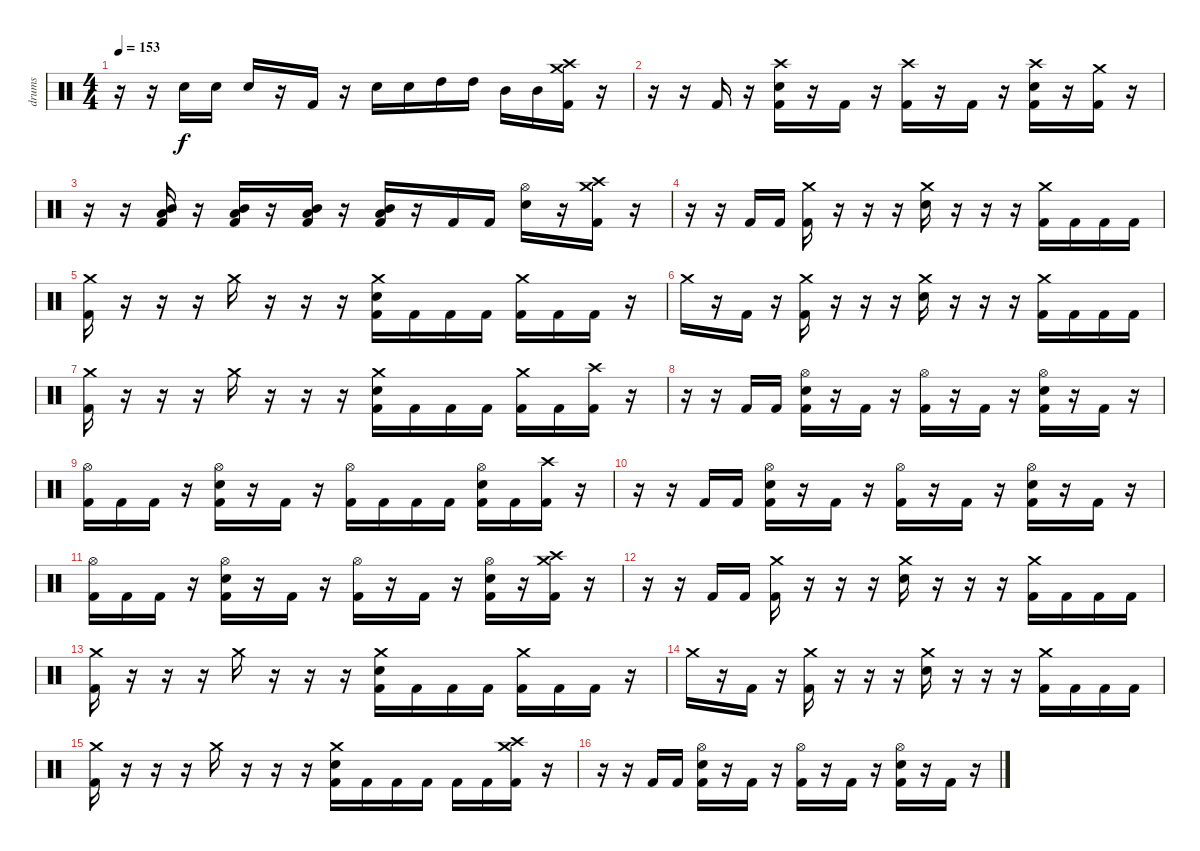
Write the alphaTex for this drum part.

\track ("drums" "drums") {instrument percussion}
\staff {score}
\articulation defaults
\ts (4 4)
\tempo 153
\clef neutral
\ks c
r.16{dy f} r.16 "Electric Snare (hit)".16 "Electric Snare (hit)".16 "Electric Snare (hit)".16 r.16 "Kick (hit) 2".16 r.16 "Electric Snare (hit)".16 "Electric Snare (hit)".16 "High Tom (hit)".16 "High Tom (hit)".16 "Mid Tom (hit)".16 "Mid Tom (hit)".16 ("Crash high (hit)" "Crash medium (hit)" "Kick (hit) 2").16 r.16 |
r.16 r.16 "Kick (hit) 2".16 r.16 ("Crash high (hit)" "Electric Snare (hit)" "Kick (hit) 2").16 r.16 "Kick (hit) 2".16 r.16 ("Crash high (hit)" "Kick (hit) 2").16 r.16 "Kick (hit) 2".16 r.16 ("Crash high (hit)" "Electric Snare (hit)" "Kick (hit) 2").16 r.16 ("Crash medium (hit)" "Kick (hit) 2").16 r.16 |
r.16 r.16 ("Mid Tom (hit)" "Low Floor Tom (hit)" "Kick (hit) 2").16 r.16 ("Mid Tom (hit)" "Low Floor Tom (hit)" "Kick (hit) 2").16 r.16 ("Mid Tom (hit)" "Low Floor Tom (hit)" "Kick (hit) 2").16 r.16 ("Mid Tom (hit)" "Low Floor Tom (hit)" "Kick (hit) 2").16 r.16 "Kick (hit) 2".16 "Kick (hit) 2".16 ("Hi-Hat (open)" "Electric Snare (hit)").16 r.16 ("Crash medium (hit)" "Crash high (hit)" "Kick (hit) 2").16 r.16 |
r.16 r.16 "Kick (hit) 2".16 "Kick (hit) 2".16 ("Crash medium (hit)" "Kick (hit) 2").16 r.16 r.16 r.16 ("Crash medium (hit)" "Electric Snare (hit)").16 r.16 r.16 r.16 ("Crash medium (hit)" "Kick (hit) 2").16 "Kick (hit) 2".16 "Kick (hit) 2".16 "Kick (hit) 2".16 |
("Crash medium (hit)" "Kick (hit) 2").16 r.16 r.16 r.16 "Crash medium (hit)".16 r.16 r.16 r.16 ("Crash medium (hit)" "Electric Snare (hit)" "Kick (hit) 2").16 "Kick (hit) 2".16 "Kick (hit) 2".16 "Kick (hit) 2".16 ("Crash medium (hit)" "Kick (hit) 2").16 "Kick (hit) 2".16 "Kick (hit) 2".16 r.16 |
"Crash medium (hit)".16 r.16 "Kick (hit) 2".16 r.16 ("Crash medium (hit)" "Kick (hit) 2").16 r.16 r.16 r.16 ("Crash medium (hit)" "Electric Snare (hit)").16 r.16 r.16 r.16 ("Crash medium (hit)" "Kick (hit) 2").16 "Kick (hit) 2".16 "Kick (hit) 2".16 "Kick (hit) 2".16 |
("Crash medium (hit)" "Kick (hit) 2").16 r.16 r.16 r.16 "Crash medium (hit)".16 r.16 r.16 r.16 ("Crash medium (hit)" "Electric Snare (hit)" "Kick (hit) 2").16 "Kick (hit) 2".16 "Kick (hit) 2".16 "Kick (hit) 2".16 ("Crash medium (hit)" "Kick (hit) 2").16 "Kick (hit) 2".16 ("Crash high (hit)" "Kick (hit) 2").16 r.16 |
r.16 r.16 "Kick (hit) 2".16 "Kick (hit) 2".16 ("Hi-Hat (open)" "Electric Snare (hit)" "Kick (hit) 2").16 r.16 "Kick (hit) 2".16 r.16 ("Hi-Hat (open)" "Kick (hit) 2").16 r.16 "Kick (hit) 2".16 r.16 ("Hi-Hat (open)" "Electric Snare (hit)" "Kick (hit) 2").16 r.16 "Kick (hit) 2".16 r.16 |
("Hi-Hat (open)" "Kick (hit) 2").16 "Kick (hit) 2".16 "Kick (hit) 2".16 r.16 ("Hi-Hat (open)" "Electric Snare (hit)" "Kick (hit) 2").16 r.16 "Kick (hit) 2".16 r.16 ("Hi-Hat (open)" "Kick (hit) 2").16 "Kick (hit) 2".16 "Kick (hit) 2".16 "Kick (hit) 2".16 ("Hi-Hat (open)" "Electric Snare (hit)" "Kick (hit) 2").16 "Kick (hit) 2".16 ("Crash high (hit)" "Kick (hit) 2").16 r.16 |
r.16 r.16 "Kick (hit) 2".16 "Kick (hit) 2".16 ("Hi-Hat (open)" "Electric Snare (hit)" "Kick (hit) 2").16 r.16 "Kick (hit) 2".16 r.16 ("Hi-Hat (open)" "Kick (hit) 2").16 r.16 "Kick (hit) 2".16 r.16 ("Hi-Hat (open)" "Electric Snare (hit)" "Kick (hit) 2").16 r.16 "Kick (hit) 2".16 r.16 |
("Hi-Hat (open)" "Kick (hit) 2").16 "Kick (hit) 2".16 "Kick (hit) 2".16 r.16 ("Hi-Hat (open)" "Electric Snare (hit)" "Kick (hit) 2").16 r.16 "Kick (hit) 2".16 r.16 ("Hi-Hat (open)" "Kick (hit) 2").16 r.16 "Kick (hit) 2".16 r.16 ("Hi-Hat (open)" "Electric Snare (hit)" "Kick (hit) 2").16 r.16 ("Crash high (hit)" "Crash medium (hit)" "Kick (hit) 2").16 r.16 |
r.16 r.16 "Kick (hit) 2".16 "Kick (hit) 2".16 ("Crash medium (hit)" "Kick (hit) 2").16 r.16 r.16 r.16 ("Crash medium (hit)" "Electric Snare (hit)").16 r.16 r.16 r.16 ("Crash medium (hit)" "Kick (hit) 2").16 "Kick (hit) 2".16 "Kick (hit) 2".16 "Kick (hit) 2".16 |
("Crash medium (hit)" "Kick (hit) 2").16 r.16 r.16 r.16 "Crash medium (hit)".16 r.16 r.16 r.16 ("Crash medium (hit)" "Electric Snare (hit)" "Kick (hit) 2").16 "Kick (hit) 2".16 "Kick (hit) 2".16 "Kick (hit) 2".16 ("Crash medium (hit)" "Kick (hit) 2").16 "Kick (hit) 2".16 "Kick (hit) 2".16 r.16 |
"Crash medium (hit)".16 r.16 "Kick (hit) 2".16 r.16 ("Crash medium (hit)" "Kick (hit) 2").16 r.16 r.16 r.16 ("Crash medium (hit)" "Electric Snare (hit)").16 r.16 r.16 r.16 ("Crash medium (hit)" "Kick (hit) 2").16 "Kick (hit) 2".16 "Kick (hit) 2".16 "Kick (hit) 2".16 |
("Crash medium (hit)" "Kick (hit) 2").16 r.16 r.16 r.16 "Crash medium (hit)".16 r.16 r.16 r.16 ("Crash medium (hit)" "Electric Snare (hit)" "Kick (hit) 2").16 "Kick (hit) 2".16 "Kick (hit) 2".16 "Kick (hit) 2".16 "Kick (hit) 2".16 "Kick (hit) 2".16 ("Crash medium (hit)" "Crash high (hit)" "Kick (hit) 2").16 r.16 |
r.16 r.16 "Kick (hit) 2".16 "Kick (hit) 2".16 ("Hi-Hat (open)" "Electric Snare (hit)" "Kick (hit) 2").16 r.16 "Kick (hit) 2".16 r.16 ("Hi-Hat (open)" "Kick (hit) 2").16 r.16 "Kick (hit) 2".16 r.16 ("Hi-Hat (open)" "Electric Snare (hit)" "Kick (hit) 2").16 r.16 "Kick (hit) 2".16 r.16
